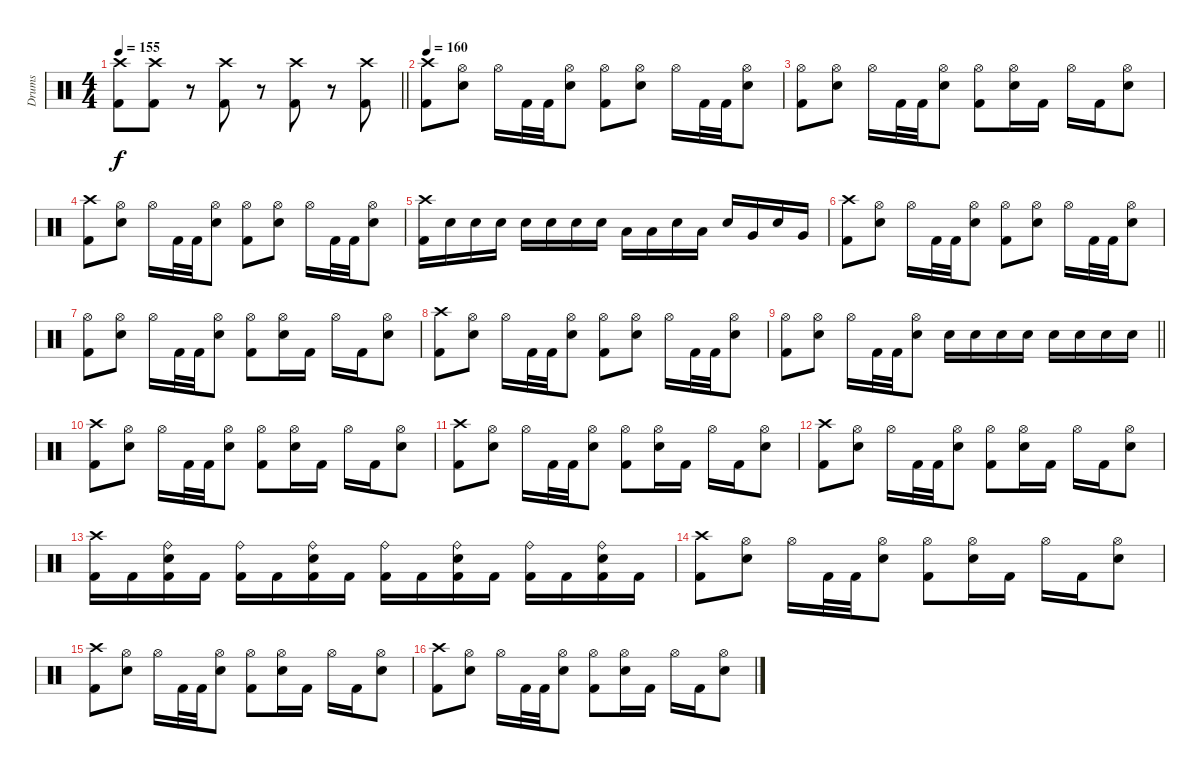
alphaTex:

\track ("Drums" "Drums") {instrument percussion}
\staff {score}
\articulation defaults
\ts (4 4)
\tempo 155
\clef neutral
\barLineRight lightlight
\ks c
("Crash high (hit)" "Kick (hit) 2").8{dy f} ("Crash high (hit)" "Kick (hit) 2").8 r.8{volume 0} ("Crash high (hit)" "Kick (hit) 2").8{volume 16} r.8{volume 0} ("Crash high (hit)" "Kick (hit) 2").8{volume 16} r.8{volume 0} ("Crash high (hit)" "Kick (hit) 2").8{volume 16} |
\tempo 160
("Crash high (hit)" "Kick (hit) 2").8 ("Hi-Hat (open)" "Snare (hit) 2").8 "Hi-Hat (open)".16 "Kick (hit) 2".32 "Kick (hit) 2".32 ("Hi-Hat (open)" "Snare (hit) 2").8 ("Hi-Hat (open)" "Kick (hit) 2").8 ("Hi-Hat (open)" "Snare (hit) 2").8 "Hi-Hat (open)".16 "Kick (hit) 2".32 "Kick (hit) 2".32 ("Hi-Hat (open)" "Snare (hit) 2").8 |
("Hi-Hat (open)" "Kick (hit) 2").8 ("Hi-Hat (open)" "Snare (hit) 2").8 "Hi-Hat (open)".16 "Kick (hit) 2".32 "Kick (hit) 2".32 ("Hi-Hat (open)" "Snare (hit) 2").8 ("Hi-Hat (open)" "Kick (hit) 2").8 ("Hi-Hat (open)" "Snare (hit) 2").16 "Kick (hit) 2".16 "Hi-Hat (open)".16 "Kick (hit) 2".16 ("Hi-Hat (open)" "Snare (hit) 2").8 |
("Crash high (hit)" "Kick (hit) 2").8 ("Hi-Hat (open)" "Snare (hit) 2").8 "Hi-Hat (open)".16 "Kick (hit) 2".32 "Kick (hit) 2".32 ("Hi-Hat (open)" "Snare (hit) 2").8 ("Hi-Hat (open)" "Kick (hit) 2").8 ("Hi-Hat (open)" "Snare (hit) 2").8 "Hi-Hat (open)".16 "Kick (hit) 2".32 "Kick (hit) 2".32 ("Hi-Hat (open)" "Snare (hit) 2").8 |
("Crash high (hit)" "Kick (hit) 2").16 "Snare (hit) 2".16 "Snare (hit) 2".16 "Snare (hit) 2".16 "Snare (hit) 2".16 "Snare (hit) 2".16 "Snare (hit) 2".16 "Snare (hit) 2".16 "Low Tom (hit)".16 "Low Tom (hit)".16 "Snare (hit) 2".16 "Low Tom (hit)".16 "Snare (hit) 2".16 "Very Low Tom (hit)".16 "Snare (hit) 2".16 "Very Low Tom (hit)".16 |
("Crash high (hit)" "Kick (hit) 2").8 ("Hi-Hat (open)" "Snare (hit) 2").8 "Hi-Hat (open)".16 "Kick (hit) 2".32 "Kick (hit) 2".32 ("Hi-Hat (open)" "Snare (hit) 2").8 ("Hi-Hat (open)" "Kick (hit) 2").8 ("Hi-Hat (open)" "Snare (hit) 2").8 "Hi-Hat (open)".16 "Kick (hit) 2".32 "Kick (hit) 2".32 ("Hi-Hat (open)" "Snare (hit) 2").8 |
("Hi-Hat (open)" "Kick (hit) 2").8 ("Hi-Hat (open)" "Snare (hit) 2").8 "Hi-Hat (open)".16 "Kick (hit) 2".32 "Kick (hit) 2".32 ("Hi-Hat (open)" "Snare (hit) 2").8 ("Hi-Hat (open)" "Kick (hit) 2").8 ("Hi-Hat (open)" "Snare (hit) 2").16 "Kick (hit) 2".16 "Hi-Hat (open)".16 "Kick (hit) 2".16 ("Hi-Hat (open)" "Snare (hit) 2").8 |
("Crash high (hit)" "Kick (hit) 2").8 ("Hi-Hat (open)" "Snare (hit) 2").8 "Hi-Hat (open)".16 "Kick (hit) 2".32 "Kick (hit) 2".32 ("Hi-Hat (open)" "Snare (hit) 2").8 ("Hi-Hat (open)" "Kick (hit) 2").8 ("Hi-Hat (open)" "Snare (hit) 2").8 "Hi-Hat (open)".16 "Kick (hit) 2".32 "Kick (hit) 2".32 ("Hi-Hat (open)" "Snare (hit) 2").8 |
\barLineRight lightlight
("Hi-Hat (open)" "Kick (hit) 2").8 ("Hi-Hat (open)" "Snare (hit) 2").8 "Hi-Hat (open)".16 "Kick (hit) 2".32 "Kick (hit) 2".32 ("Hi-Hat (open)" "Snare (hit) 2").8 "Snare (hit) 2".16 "Snare (hit) 2".16 "Snare (hit) 2".16 "Snare (hit) 2".16 "Snare (hit) 2".16 "Snare (hit) 2".16 "Snare (hit) 2".16 "Snare (hit) 2".16 |
("Crash high (hit)" "Kick (hit) 2").8 ("Hi-Hat (open)" "Snare (hit) 2").8 "Hi-Hat (open)".16 "Kick (hit) 2".32 "Kick (hit) 2".32 ("Hi-Hat (open)" "Snare (hit) 2").8 ("Hi-Hat (open)" "Kick (hit) 2").8 ("Hi-Hat (open)" "Snare (hit) 2").16 "Kick (hit) 2".16 "Hi-Hat (open)".16 "Kick (hit) 2".16 ("Hi-Hat (open)" "Snare (hit) 2").8 |
("Crash high (hit)" "Kick (hit) 2").8 ("Hi-Hat (open)" "Snare (hit) 2").8 "Hi-Hat (open)".16 "Kick (hit) 2".32 "Kick (hit) 2".32 ("Hi-Hat (open)" "Snare (hit) 2").8 ("Hi-Hat (open)" "Kick (hit) 2").8 ("Hi-Hat (open)" "Snare (hit) 2").16 "Kick (hit) 2".16 "Hi-Hat (open)".16 "Kick (hit) 2".16 ("Hi-Hat (open)" "Snare (hit) 2").8 |
("Crash high (hit)" "Kick (hit) 2").8 ("Hi-Hat (open)" "Snare (hit) 2").8 "Hi-Hat (open)".16 "Kick (hit) 2".32 "Kick (hit) 2".32 ("Hi-Hat (open)" "Snare (hit) 2").8 ("Hi-Hat (open)" "Kick (hit) 2").8 ("Hi-Hat (open)" "Snare (hit) 2").16 "Kick (hit) 2".16 "Hi-Hat (open)".16 "Kick (hit) 2".16 ("Hi-Hat (open)" "Snare (hit) 2").8 |
("Crash high (hit)" "Kick (hit) 2").16 "Kick (hit) 2".16 ("Ride (bell)" "Snare (hit) 2" "Kick (hit) 2").16 "Kick (hit) 2".16 ("Ride (bell)" "Kick (hit) 2").16 "Kick (hit) 2".16 ("Ride (bell)" "Snare (hit) 2" "Kick (hit) 2").16 "Kick (hit) 2".16 ("Ride (bell)" "Kick (hit) 2").16 "Kick (hit) 2".16 ("Ride (bell)" "Snare (hit) 2" "Kick (hit) 2").16 "Kick (hit) 2".16 ("Ride (bell)" "Kick (hit) 2").16 "Kick (hit) 2".16 ("Ride (bell)" "Snare (hit) 2" "Kick (hit) 2").16 "Kick (hit) 2".16 |
("Crash high (hit)" "Kick (hit) 2").8 ("Hi-Hat (open)" "Snare (hit) 2").8 "Hi-Hat (open)".16 "Kick (hit) 2".32 "Kick (hit) 2".32 ("Hi-Hat (open)" "Snare (hit) 2").8 ("Hi-Hat (open)" "Kick (hit) 2").8 ("Hi-Hat (open)" "Snare (hit) 2").16 "Kick (hit) 2".16 "Hi-Hat (open)".16 "Kick (hit) 2".16 ("Hi-Hat (open)" "Snare (hit) 2").8 |
("Crash high (hit)" "Kick (hit) 2").8 ("Hi-Hat (open)" "Snare (hit) 2").8 "Hi-Hat (open)".16 "Kick (hit) 2".32 "Kick (hit) 2".32 ("Hi-Hat (open)" "Snare (hit) 2").8 ("Hi-Hat (open)" "Kick (hit) 2").8 ("Hi-Hat (open)" "Snare (hit) 2").16 "Kick (hit) 2".16 "Hi-Hat (open)".16 "Kick (hit) 2".16 ("Hi-Hat (open)" "Snare (hit) 2").8 |
("Crash high (hit)" "Kick (hit) 2").8 ("Hi-Hat (open)" "Snare (hit) 2").8 "Hi-Hat (open)".16 "Kick (hit) 2".32 "Kick (hit) 2".32 ("Hi-Hat (open)" "Snare (hit) 2").8 ("Hi-Hat (open)" "Kick (hit) 2").8 ("Hi-Hat (open)" "Snare (hit) 2").16 "Kick (hit) 2".16 "Hi-Hat (open)".16 "Kick (hit) 2".16 ("Hi-Hat (open)" "Snare (hit) 2").8
